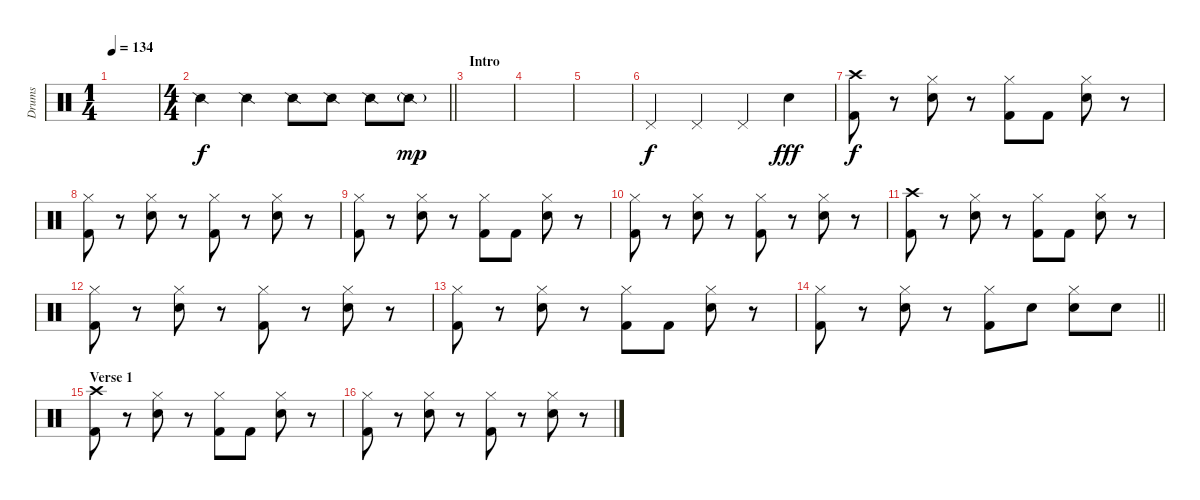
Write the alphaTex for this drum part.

\track ("Drums" "Drums") {instrument percussion}
\staff {score}
\articulation defaults
\ts (1 4)
\tempo 134
\clef neutral
\ks c
|
\ts (4 4)
\barLineRight lightlight "Snare (side stick) 2".4 "Snare (side stick) 2".4 "Snare (side stick) 2".8 "Snare (side stick) 2".8 "Snare (side stick) 2".8 "Snare (side stick) 2"{g}.8{dy mp}
|
\section ("" "Intro")
|
|
|
"Pedal Hi-Hat (hit)".4{dy f} "Pedal Hi-Hat (hit)".4 "Pedal Hi-Hat (hit)".4 "Snare (hit) 2".4{dy fff} |
("Crash high (hit)" "Kick (hit) 2").8{dy f} r.8 ("Hi-Hat (closed)" "Snare (hit) 2").8 r.8 ("Hi-Hat (closed)" "Kick (hit) 2").8 "Kick (hit) 2".8 ("Hi-Hat (closed)" "Snare (hit) 2").8 r.8 |
("Hi-Hat (closed)" "Kick (hit) 2").8 r.8 ("Hi-Hat (closed)" "Snare (hit) 2").8 r.8 ("Hi-Hat (closed)" "Kick (hit) 2").8 r.8 ("Hi-Hat (closed)" "Snare (hit) 2").8 r.8 |
("Hi-Hat (closed)" "Kick (hit) 2").8 r.8 ("Hi-Hat (closed)" "Snare (hit) 2").8 r.8 ("Hi-Hat (closed)" "Kick (hit) 2").8 "Kick (hit) 2".8 ("Hi-Hat (closed)" "Snare (hit) 2").8 r.8 |
("Hi-Hat (closed)" "Kick (hit) 2").8 r.8 ("Hi-Hat (closed)" "Snare (hit) 2").8 r.8 ("Hi-Hat (closed)" "Kick (hit) 2").8 r.8 ("Hi-Hat (closed)" "Snare (hit) 2").8 r.8 |
("Crash high (hit)" "Kick (hit) 2").8 r.8 ("Hi-Hat (closed)" "Snare (hit) 2").8 r.8 ("Hi-Hat (closed)" "Kick (hit) 2").8 "Kick (hit) 2".8 ("Hi-Hat (closed)" "Snare (hit) 2").8 r.8 |
("Hi-Hat (closed)" "Kick (hit) 2").8 r.8 ("Hi-Hat (closed)" "Snare (hit) 2").8 r.8 ("Hi-Hat (closed)" "Kick (hit) 2").8 r.8 ("Hi-Hat (closed)" "Snare (hit) 2").8 r.8 |
("Hi-Hat (closed)" "Kick (hit) 2").8 r.8 ("Hi-Hat (closed)" "Snare (hit) 2").8 r.8 ("Hi-Hat (closed)" "Kick (hit) 2").8 "Kick (hit) 2".8 ("Hi-Hat (closed)" "Snare (hit) 2").8 r.8 |
\barLineRight lightlight
("Hi-Hat (closed)" "Kick (hit) 2").8 r.8 ("Hi-Hat (closed)" "Snare (hit) 2").8 r.8 ("Hi-Hat (closed)" "Kick (hit) 2").8 "Snare (hit) 2".8 ("Hi-Hat (closed)" "Snare (hit) 2").8 "Snare (hit) 2".8 |
\section ("" "Verse 1")
("Crash high (hit)" "Kick (hit) 2").8 r.8 ("Hi-Hat (closed)" "Snare (hit) 2").8 r.8 ("Hi-Hat (closed)" "Kick (hit) 2").8 "Kick (hit) 2".8 ("Hi-Hat (closed)" "Snare (hit) 2").8 r.8 |
("Hi-Hat (closed)" "Kick (hit) 2").8 r.8 ("Hi-Hat (closed)" "Snare (hit) 2").8 r.8 ("Hi-Hat (closed)" "Kick (hit) 2").8 r.8 ("Hi-Hat (closed)" "Snare (hit) 2").8 r.8
